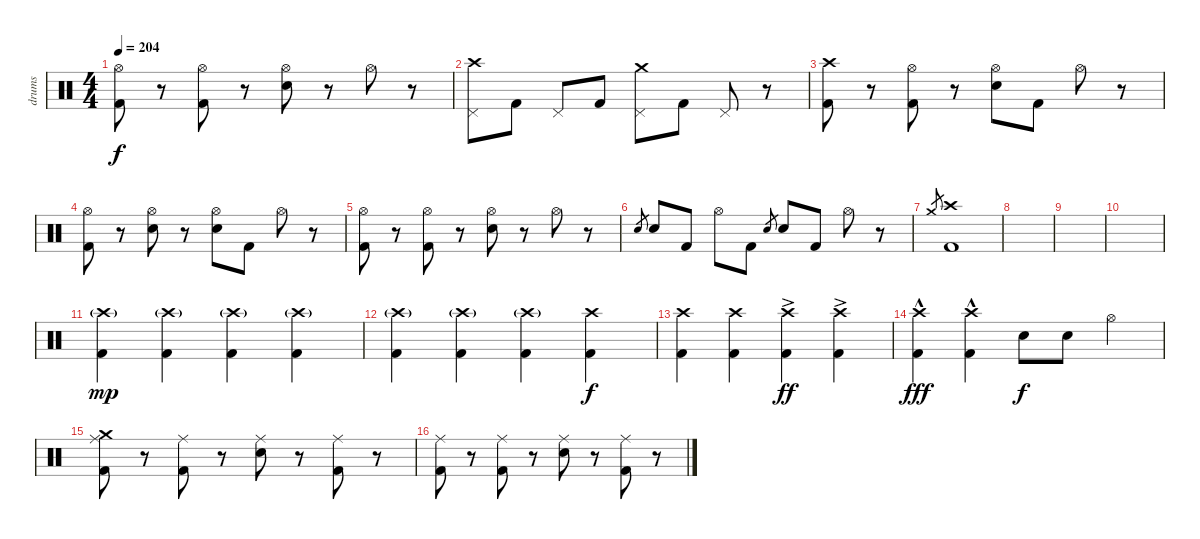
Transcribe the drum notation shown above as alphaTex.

\track ("drums" "drums") {instrument percussion}
\staff {score}
\articulation defaults
\ts (4 4)
\tempo 204
\clef neutral
\ks c
("Hi-Hat (open)" "Kick (hit) 2").8{dy f} r.8 ("Hi-Hat (open)" "Kick (hit) 2").8 r.8 ("Hi-Hat (open)" "Snare (hit) 2").8 r.8 "Hi-Hat (open)".8 r.8 |
("Crash high (hit)" "Pedal Hi-Hat (hit)").8 "Kick (hit) 2".8 "Pedal Hi-Hat (hit)".8 "Kick (hit) 2".8 ("Crash medium (hit)" "Pedal Hi-Hat (hit)").8 "Kick (hit) 2".8 "Pedal Hi-Hat (hit)".8 r.8 |
("Crash high (hit)" "Kick (hit) 2").8 r.8 ("Hi-Hat (open)" "Kick (hit) 2").8 r.8 ("Hi-Hat (open)" "Snare (hit) 2").8 "Kick (hit) 2".8 "Hi-Hat (open)".8 r.8 |
("Hi-Hat (open)" "Kick (hit) 2").8 r.8 ("Hi-Hat (open)" "Snare (hit) 2").8 r.8 ("Hi-Hat (open)" "Snare (hit) 2").8 "Kick (hit) 2".8 "Hi-Hat (open)".8 r.8 |
("Hi-Hat (open)" "Kick (hit) 2").8 r.8 ("Hi-Hat (open)" "Kick (hit) 2").8 r.8 ("Hi-Hat (open)" "Snare (hit) 2").8 r.8 "Hi-Hat (open)".8 r.8 |
"Snare (hit) 2".8{gr} "Snare (hit) 2".8 "Kick (hit) 2".8 "Hi-Hat (open)".8 "Kick (hit) 2".8 "Snare (hit) 2".8{gr} "Snare (hit) 2".8 "Kick (hit) 2".8 "Hi-Hat (open)".8 r.8 |
"Crash medium (hit)".8{gr} ("Crash high (hit)" "Kick (hit) 2").1 |
|
|
|
("Crash high (hit)"{g} "Kick (hit) 2").4{dy mp} ("Crash high (hit)"{g} "Kick (hit) 2").4 ("Crash high (hit)"{g} "Kick (hit) 2").4 ("Crash high (hit)"{g} "Kick (hit) 2").4 |
("Crash high (hit)"{g} "Kick (hit) 2").4 ("Crash high (hit)"{g} "Kick (hit) 2").4 ("Crash high (hit)"{g} "Kick (hit) 2").4 ("Crash high (hit)" "Kick (hit) 2").4{dy f} |
("Crash high (hit)" "Kick (hit) 2").4 ("Crash high (hit)" "Kick (hit) 2").4 ("Crash high (hit)"{ac} "Kick (hit) 2").4{dy ff} ("Crash high (hit)"{ac} "Kick (hit) 2").4 |
("Crash high (hit)"{hac} "Kick (hit) 2").4{dy fff} ("Crash high (hit)"{hac} "Kick (hit) 2").4 "Snare (hit) 2".8{dy f} "Snare (hit) 2".8 "Hi-Hat (open)".4 |
("Crash medium (hit)" "Ride (middle)" "Kick (hit) 2").8 r.8 ("Ride (middle)" "Kick (hit) 2").8 r.8 ("Ride (middle)" "Snare (hit) 2").8 r.8 ("Ride (middle)" "Kick (hit) 2").8 r.8 |
("Ride (middle)" "Kick (hit) 2").8 r.8 ("Ride (middle)" "Kick (hit) 2").8 r.8 ("Ride (middle)" "Snare (hit) 2").8 r.8 ("Ride (middle)" "Kick (hit) 2").8 r.8
